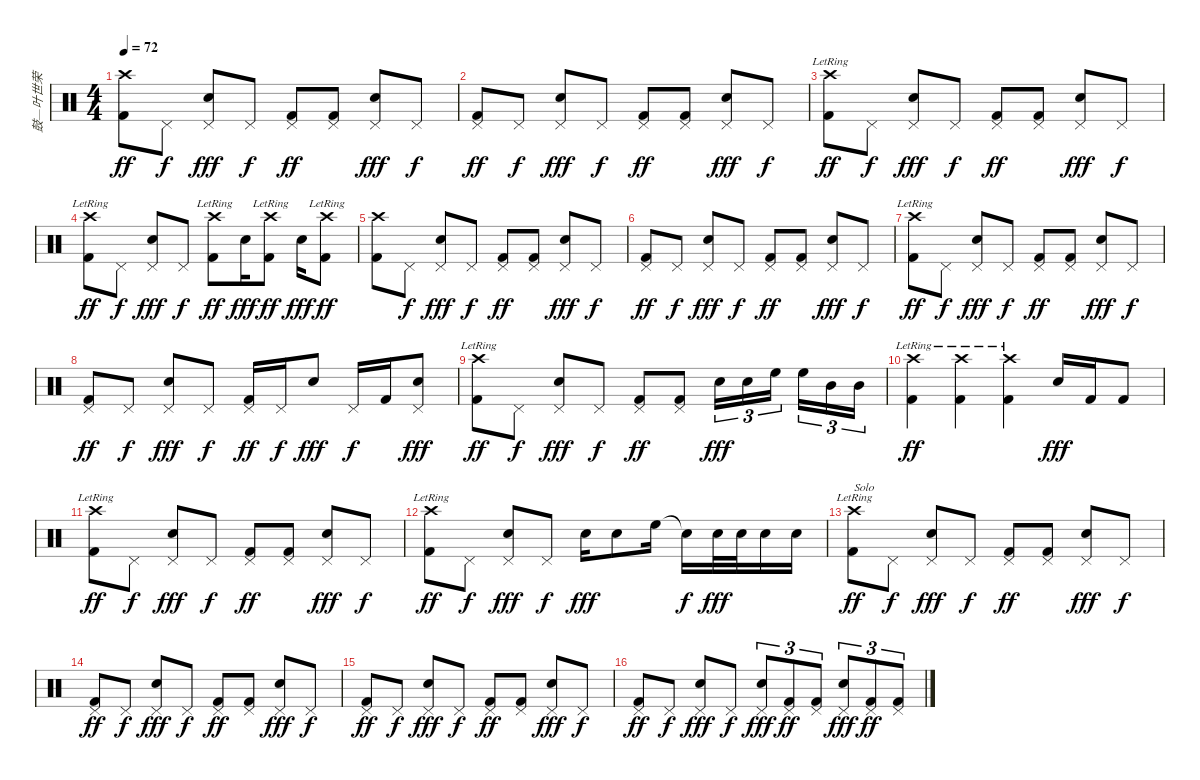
\track ("鼓—叶世荣" "鼓—叶世荣") {instrument percussion}
\staff {score}
\articulation defaults
\ts (4 4)
\tempo 72
\clef neutral
\ks c
("Crash high (hit)" "Kick (hit) 2").8{dy ff} "Pedal Hi-Hat (hit)".8{dy f} ("Pedal Hi-Hat (hit)" "Electric Snare (hit)").8{dy fff} "Pedal Hi-Hat (hit)".8{dy f} ("Pedal Hi-Hat (hit)" "Kick (hit) 2").8{dy ff} ("Pedal Hi-Hat (hit)" "Kick (hit) 2").8 ("Pedal Hi-Hat (hit)" "Electric Snare (hit)").8{dy fff} "Pedal Hi-Hat (hit)".8{dy f} |
("Pedal Hi-Hat (hit)" "Kick (hit) 2").8{dy ff} "Pedal Hi-Hat (hit)".8{dy f} ("Pedal Hi-Hat (hit)" "Electric Snare (hit)").8{dy fff} "Pedal Hi-Hat (hit)".8{dy f} ("Pedal Hi-Hat (hit)" "Kick (hit) 2").8{dy ff} ("Pedal Hi-Hat (hit)" "Kick (hit) 2").8 ("Pedal Hi-Hat (hit)" "Electric Snare (hit)").8{dy fff} "Pedal Hi-Hat (hit)".8{dy f} |
("Crash high (hit)"{lr} "Kick (hit) 2").8{dy ff} "Pedal Hi-Hat (hit)".8{dy f} ("Pedal Hi-Hat (hit)" "Electric Snare (hit)").8{dy fff} "Pedal Hi-Hat (hit)".8{dy f} ("Pedal Hi-Hat (hit)" "Kick (hit) 2").8{dy ff} ("Pedal Hi-Hat (hit)" "Kick (hit) 2").8 ("Pedal Hi-Hat (hit)" "Electric Snare (hit)").8{dy fff} "Pedal Hi-Hat (hit)".8{dy f} |
("Crash high (hit)"{lr} "Kick (hit) 2").8{dy ff} "Pedal Hi-Hat (hit)".8{dy f} ("Pedal Hi-Hat (hit)" "Electric Snare (hit)").8{dy fff} "Pedal Hi-Hat (hit)".8{dy f} ("Crash high (hit)"{lr} "Kick (hit) 2").8{dy ff} "Electric Snare (hit)".16{dy fff} ("Crash high (hit)"{lr} "Kick (hit) 2").8{dy ff} "Electric Snare (hit)".16{dy fff} ("Crash high (hit)"{lr} "Kick (hit) 2").8{dy ff} |
("Crash high (hit)" "Kick (hit) 2").8 "Pedal Hi-Hat (hit)".8{dy f} ("Pedal Hi-Hat (hit)" "Electric Snare (hit)").8{dy fff} "Pedal Hi-Hat (hit)".8{dy f} ("Pedal Hi-Hat (hit)" "Kick (hit) 2").8{dy ff} ("Pedal Hi-Hat (hit)" "Kick (hit) 2").8 ("Pedal Hi-Hat (hit)" "Electric Snare (hit)").8{dy fff} "Pedal Hi-Hat (hit)".8{dy f} |
("Pedal Hi-Hat (hit)" "Kick (hit) 2").8{dy ff} "Pedal Hi-Hat (hit)".8{dy f} ("Pedal Hi-Hat (hit)" "Electric Snare (hit)").8{dy fff} "Pedal Hi-Hat (hit)".8{dy f} ("Pedal Hi-Hat (hit)" "Kick (hit) 2").8{dy ff} ("Pedal Hi-Hat (hit)" "Kick (hit) 2").8 ("Pedal Hi-Hat (hit)" "Electric Snare (hit)").8{dy fff} "Pedal Hi-Hat (hit)".8{dy f} |
("Crash high (hit)"{lr} "Kick (hit) 2").8{dy ff} "Pedal Hi-Hat (hit)".8{dy f} ("Pedal Hi-Hat (hit)" "Electric Snare (hit)").8{dy fff} "Pedal Hi-Hat (hit)".8{dy f} ("Pedal Hi-Hat (hit)" "Kick (hit) 2").8{dy ff} ("Pedal Hi-Hat (hit)" "Kick (hit) 2").8 ("Pedal Hi-Hat (hit)" "Electric Snare (hit)").8{dy fff} "Pedal Hi-Hat (hit)".8{dy f} |
("Pedal Hi-Hat (hit)" "Kick (hit) 2").8{dy ff} "Pedal Hi-Hat (hit)".8{dy f} ("Pedal Hi-Hat (hit)" "Electric Snare (hit)").8{dy fff} "Pedal Hi-Hat (hit)".8{dy f} ("Pedal Hi-Hat (hit)" "Kick (hit) 2").16{dy ff} "Pedal Hi-Hat (hit)".16{dy f} "Electric Snare (hit)".8{dy fff} "Pedal Hi-Hat (hit)".16{dy f} "Kick (hit) 2".16 ("Pedal Hi-Hat (hit)" "Electric Snare (hit)").8{dy fff} |
("Crash high (hit)"{lr} "Kick (hit) 2").8{dy ff} "Pedal Hi-Hat (hit)".8{dy f} ("Pedal Hi-Hat (hit)" "Electric Snare (hit)").8{dy fff} "Pedal Hi-Hat (hit)".8{dy f} ("Pedal Hi-Hat (hit)" "Kick (hit) 2").8{dy ff} ("Pedal Hi-Hat (hit)" "Kick (hit) 2").8 "Electric Snare (hit)".16{tu (3 2) dy fff} "Electric Snare (hit)".16{tu (3 2)} "High Floor Tom (hit)".16{tu (3 2)} "High Floor Tom (hit)".16{tu (3 2)} "Mid Tom (hit)".16{tu (3 2)} "Mid Tom (hit)".16{tu (3 2)} |
("Crash high (hit)"{lr} "Kick (hit) 2").4{dy ff} ("Crash high (hit)"{lr} "Kick (hit) 2").4 ("Crash high (hit)"{lr} "Kick (hit) 2").4 "Electric Snare (hit)".16{dy fff} "Kick (hit) 2".16 "Kick (hit) 2".8 |
("Crash high (hit)"{lr} "Kick (hit) 2").8{dy ff} "Pedal Hi-Hat (hit)".8{dy f} ("Pedal Hi-Hat (hit)" "Electric Snare (hit)").8{dy fff} "Pedal Hi-Hat (hit)".8{dy f} ("Pedal Hi-Hat (hit)" "Kick (hit) 2").8{dy ff} ("Pedal Hi-Hat (hit)" "Kick (hit) 2").8 ("Pedal Hi-Hat (hit)" "Electric Snare (hit)").8{dy fff} "Pedal Hi-Hat (hit)".8{dy f} |
("Crash high (hit)"{lr} "Kick (hit) 2").8{dy ff} "Pedal Hi-Hat (hit)".8{dy f} ("Pedal Hi-Hat (hit)" "Electric Snare (hit)").8{dy fff} "Pedal Hi-Hat (hit)".8{dy f} "Electric Snare (hit)".16{dy fff} "Electric Snare (hit)".8 "High Floor Tom (hit)".16 "Snare (hit)"{t}.16{dy f} "Electric Snare (hit)".32{dy fff} "Electric Snare (hit)".32 "Electric Snare (hit)".16 "Electric Snare (hit)".16 |
("Crash high (hit)"{lr} "Kick (hit) 2").8{txt "Solo" dy ff} "Pedal Hi-Hat (hit)".8{dy f} ("Pedal Hi-Hat (hit)" "Electric Snare (hit)").8{dy fff} "Pedal Hi-Hat (hit)".8{dy f} ("Pedal Hi-Hat (hit)" "Kick (hit) 2").8{dy ff} ("Pedal Hi-Hat (hit)" "Kick (hit) 2").8 ("Pedal Hi-Hat (hit)" "Electric Snare (hit)").8{dy fff} "Pedal Hi-Hat (hit)".8{dy f} |
("Pedal Hi-Hat (hit)" "Kick (hit) 2").8{dy ff} "Pedal Hi-Hat (hit)".8{dy f} ("Pedal Hi-Hat (hit)" "Electric Snare (hit)").8{dy fff} "Pedal Hi-Hat (hit)".8{dy f} ("Pedal Hi-Hat (hit)" "Kick (hit) 2").8{dy ff} ("Pedal Hi-Hat (hit)" "Kick (hit) 2").8 ("Pedal Hi-Hat (hit)" "Electric Snare (hit)").8{dy fff} "Pedal Hi-Hat (hit)".8{dy f} |
("Pedal Hi-Hat (hit)" "Kick (hit) 2").8{dy ff} "Pedal Hi-Hat (hit)".8{dy f} ("Pedal Hi-Hat (hit)" "Electric Snare (hit)").8{dy fff} "Pedal Hi-Hat (hit)".8{dy f} ("Pedal Hi-Hat (hit)" "Kick (hit) 2").8{dy ff} ("Pedal Hi-Hat (hit)" "Kick (hit) 2").8 ("Pedal Hi-Hat (hit)" "Electric Snare (hit)").8{dy fff} "Pedal Hi-Hat (hit)".8{dy f} |
("Pedal Hi-Hat (hit)" "Kick (hit) 2").8{dy ff} "Pedal Hi-Hat (hit)".8{dy f} ("Pedal Hi-Hat (hit)" "Electric Snare (hit)").8{dy fff} "Pedal Hi-Hat (hit)".8{dy f} ("Pedal Hi-Hat (hit)" "Electric Snare (hit)").8{tu (3 2) dy fff} ("Pedal Hi-Hat (hit)" "Kick (hit) 2").8{tu (3 2) dy ff} ("Pedal Hi-Hat (hit)" "Kick (hit) 2").8{tu (3 2)} ("Pedal Hi-Hat (hit)" "Electric Snare (hit)").8{tu (3 2) dy fff} ("Pedal Hi-Hat (hit)" "Kick (hit) 2").8{tu (3 2) dy ff} ("Pedal Hi-Hat (hit)" "Kick (hit) 2").8{tu (3 2)}
